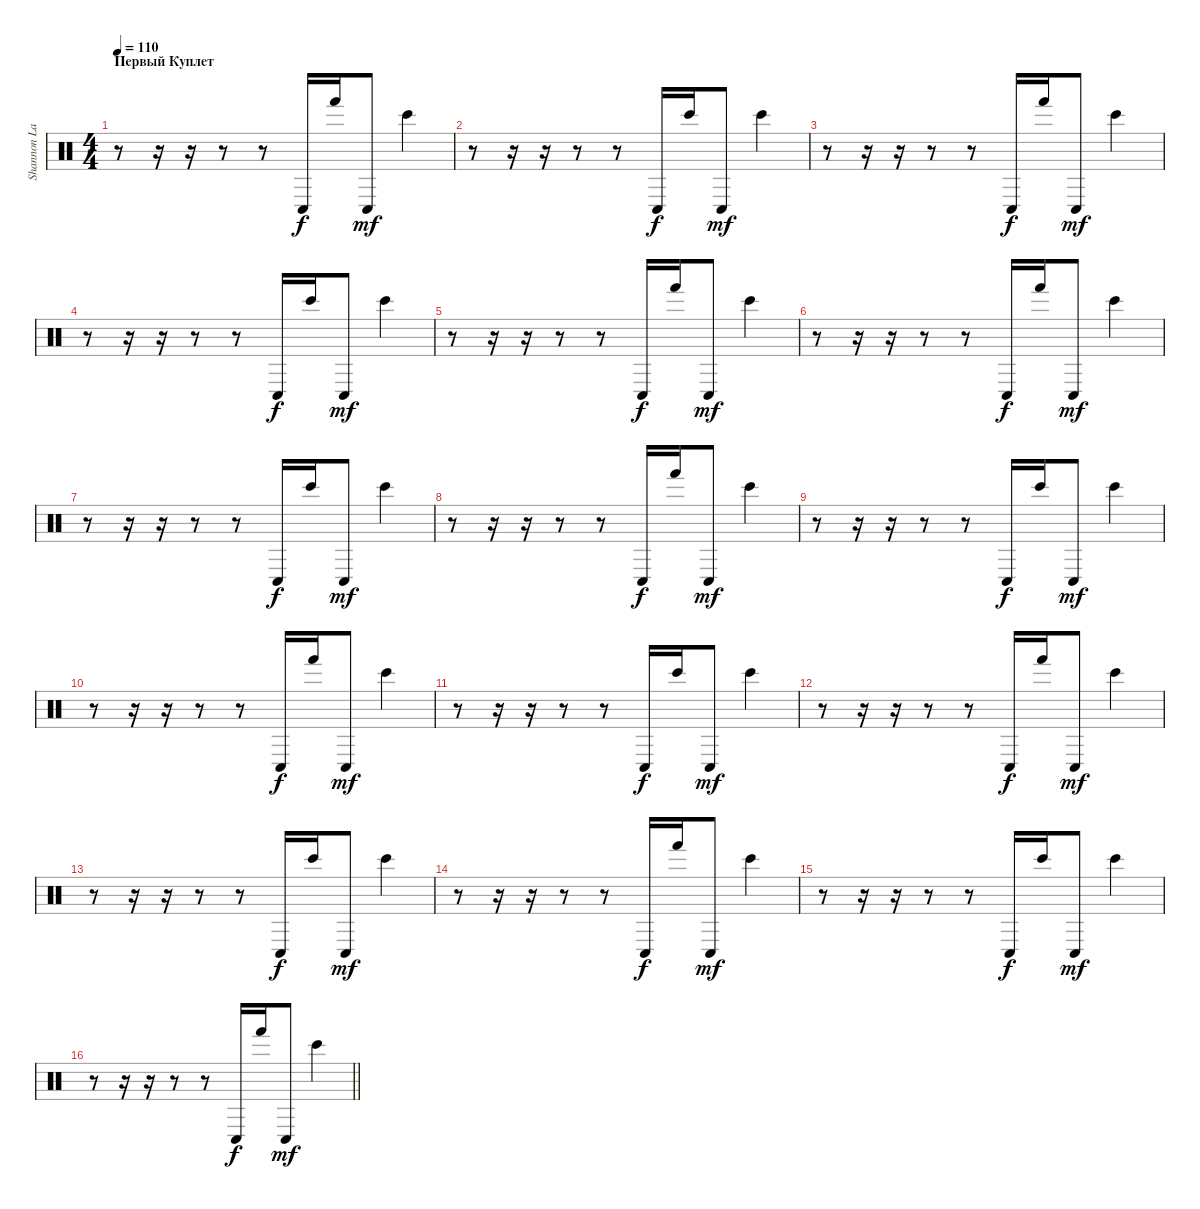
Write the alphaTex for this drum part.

\track ("Shannon Larkin [Percussion 2]" "Shannon La") {instrument percussion}
\staff {score}
\articulation defaults
\ts (4 4)
\section ("" "Первый Куплет")
\tempo 110
\clef neutral
\ks c
r.8{dy mf} r.16 r.16 r.8 r.8 "Conga low (hit)".16{dy f} "Hand (hit)".16 "Conga low (hit)".8{dy mf} "Bongo High (hit)".4 |
r.8 r.16 r.16 r.8 r.8 "Conga low (hit)".16{dy f} "Bongo High (hit)".16 "Conga low (hit)".8{dy mf} "Bongo High (hit)".4 |
r.8 r.16 r.16 r.8 r.8 "Conga low (hit)".16{dy f} "Hand (hit)".16 "Conga low (hit)".8{dy mf} "Bongo High (hit)".4 |
r.8 r.16 r.16 r.8 r.8 "Conga low (hit)".16{dy f} "Bongo High (hit)".16 "Conga low (hit)".8{dy mf} "Bongo High (hit)".4 |
r.8 r.16 r.16 r.8 r.8 "Conga low (hit)".16{dy f} "Hand (hit)".16 "Conga low (hit)".8{dy mf} "Bongo High (hit)".4 |
r.8 r.16 r.16 r.8 r.8 "Conga low (hit)".16{dy f} "Hand (hit)".16 "Conga low (hit)".8{dy mf} "Bongo High (hit)".4 |
r.8 r.16 r.16 r.8 r.8 "Conga low (hit)".16{dy f} "Bongo High (hit)".16 "Conga low (hit)".8{dy mf} "Bongo High (hit)".4 |
r.8 r.16 r.16 r.8 r.8 "Conga low (hit)".16{dy f} "Hand (hit)".16 "Conga low (hit)".8{dy mf} "Bongo High (hit)".4 |
r.8 r.16 r.16 r.8 r.8 "Conga low (hit)".16{dy f} "Bongo High (hit)".16 "Conga low (hit)".8{dy mf} "Bongo High (hit)".4 |
r.8 r.16 r.16 r.8 r.8 "Conga low (hit)".16{dy f} "Hand (hit)".16 "Conga low (hit)".8{dy mf} "Bongo High (hit)".4 |
r.8 r.16 r.16 r.8 r.8 "Conga low (hit)".16{dy f} "Bongo High (hit)".16 "Conga low (hit)".8{dy mf} "Bongo High (hit)".4 |
r.8 r.16 r.16 r.8 r.8 "Conga low (hit)".16{dy f} "Hand (hit)".16 "Conga low (hit)".8{dy mf} "Bongo High (hit)".4 |
r.8 r.16 r.16 r.8 r.8 "Conga low (hit)".16{dy f} "Bongo High (hit)".16 "Conga low (hit)".8{dy mf} "Bongo High (hit)".4 |
r.8 r.16 r.16 r.8 r.8 "Conga low (hit)".16{dy f} "Hand (hit)".16 "Conga low (hit)".8{dy mf} "Bongo High (hit)".4 |
r.8 r.16 r.16 r.8 r.8 "Conga low (hit)".16{dy f} "Bongo High (hit)".16 "Conga low (hit)".8{dy mf} "Bongo High (hit)".4 |
\barLineRight lightlight
r.8 r.16 r.16 r.8 r.8 "Conga low (hit)".16{dy f} "Hand (hit)".16 "Conga low (hit)".8{dy mf} "Bongo High (hit)".4
